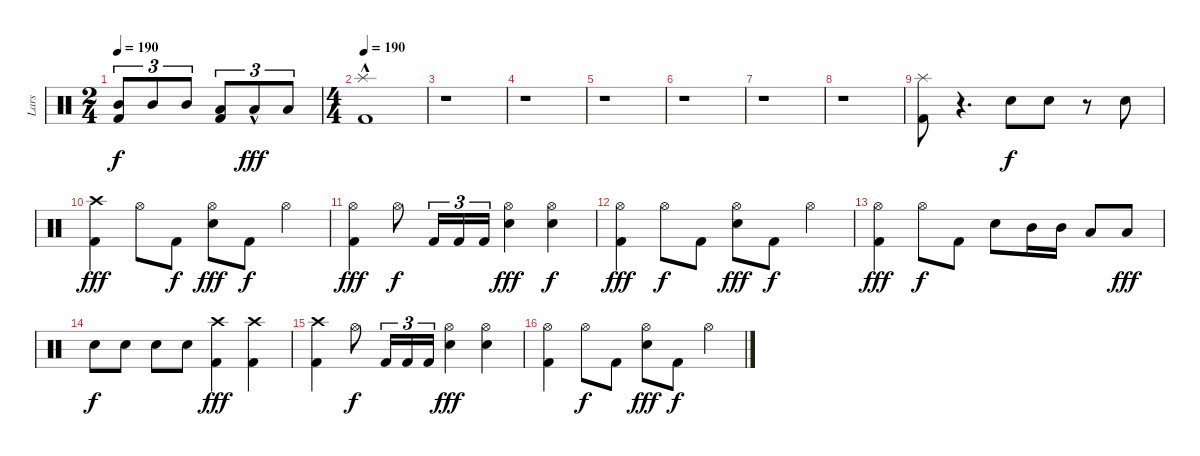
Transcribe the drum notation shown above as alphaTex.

\track ("Lars" "Lars") {instrument percussion}
\staff {score}
\articulation defaults
\ts (2 4)
\tempo 190
\clef neutral
\ks c
("Mid Tom (hit)" "Kick (hit) 2").8{tu (3 2) dy f} "Mid Tom (hit)".8{tu (3 2)} "Mid Tom (hit)".8{tu (3 2)} ("Low Tom (hit)" "Kick (hit) 2").8{tu (3 2)} "Low Tom (hit)"{hac}.8{tu (3 2) dy fff} "Low Tom (hit)".8{tu (3 2)} |
\ts (4 4)
\tempo 190
("Splash (hit)"{hac} "Kick (hit) 2").1 |
r.1 |
r.1 |
r.1 |
r.1 |
r.1 |
r.1 |
("Splash (hit)" "Kick (hit) 2").8 r.4{d} "Snare (hit) 2".8{dy f} "Snare (hit) 2".8 r.8 "Snare (hit) 2".8 |
("Crash high (hit)" "Kick (hit) 2").4{dy fff} "Hi-Hat (open)".8 "Kick (hit) 2".8{dy f} ("Hi-Hat (open)" "Snare (hit) 2").8{dy fff} "Kick (hit) 2".8{dy f} "Hi-Hat (open)".4 |
("Hi-Hat (open)" "Kick (hit) 2").4{dy fff} "Hi-Hat (open)".8{dy f} "Kick (hit) 2".16{tu (3 2)} "Kick (hit) 2".16{tu (3 2)} "Kick (hit) 2".16{tu (3 2)} ("Hi-Hat (open)" "Snare (hit) 2").4{dy fff} ("Hi-Hat (open)" "Snare (hit) 2").4{dy f} |
("Hi-Hat (open)" "Kick (hit) 2").4{dy fff} "Hi-Hat (open)".8{dy f} "Kick (hit) 2".8 ("Hi-Hat (open)" "Snare (hit) 2").8{dy fff} "Kick (hit) 2".8{dy f} "Hi-Hat (open)".4 |
("Hi-Hat (open)" "Kick (hit) 2").4{dy fff} "Hi-Hat (open)".8{dy f} "Kick (hit) 2".8 "Snare (hit) 2".8 "Mid Tom (hit)".16 "Mid Tom (hit)".16 "Low Tom (hit)".8 "Low Tom (hit)".8{dy fff} |
"Snare (hit) 2".8{dy f} "Snare (hit) 2".8 "Snare (hit) 2".8 "Snare (hit) 2".8 ("Crash high (hit)" "Kick (hit) 2").4{dy fff} ("Crash high (hit)" "Kick (hit) 2").4 |
("Crash high (hit)" "Kick (hit) 2").4 "Hi-Hat (open)".8{dy f} "Kick (hit) 2".16{tu (3 2)} "Kick (hit) 2".16{tu (3 2)} "Kick (hit) 2".16{tu (3 2)} ("Hi-Hat (open)" "Snare (hit) 2").4{dy fff} ("Hi-Hat (open)" "Snare (hit) 2").4 |
("Hi-Hat (open)" "Kick (hit) 2").4 "Hi-Hat (open)".8{dy f} "Kick (hit) 2".8 ("Hi-Hat (open)" "Snare (hit) 2").8{dy fff} "Kick (hit) 2".8{dy f} "Hi-Hat (open)".4
